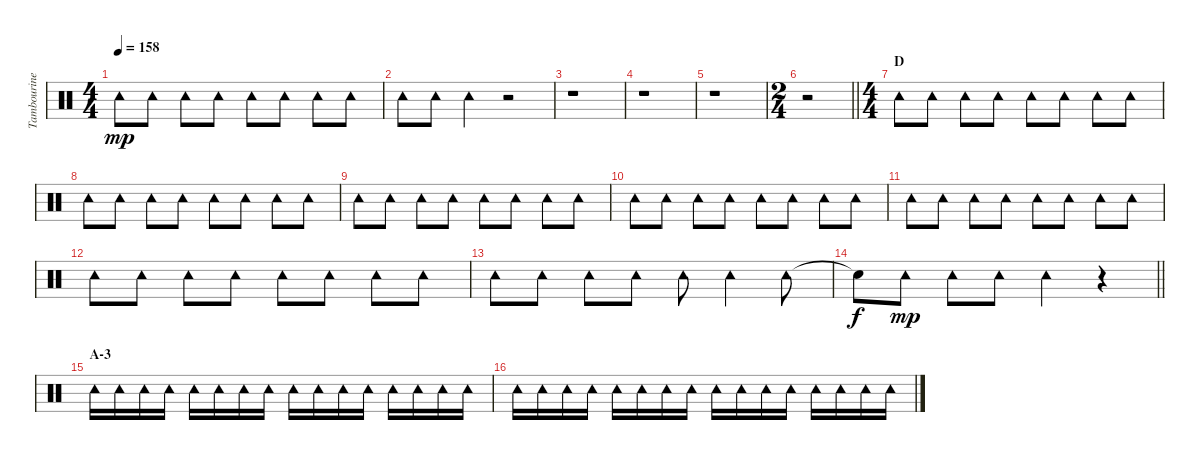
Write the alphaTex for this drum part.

\track ("Tambourine" "Tambourine") {instrument percussion}
\staff {score}
\articulation defaults
\ts (4 4)
\tempo 158
\clef neutral
\ks c "Tambourine (hit)".8{dy mp} "Tambourine (hit)".8 "Tambourine (hit)".8 "Tambourine (hit)".8 "Tambourine (hit)".8 "Tambourine (hit)".8 "Tambourine (hit)".8 "Tambourine (hit)".8
|
"Tambourine (hit)".8 "Tambourine (hit)".8 "Tambourine (hit)".4 r.2 |
r.1 |
r.1 |
r.1 |
\ts (2 4)
\barLineRight lightlight
r.2 |
\ts (4 4)
\section ("" "D")
"Tambourine (hit)".8 "Tambourine (hit)".8 "Tambourine (hit)".8 "Tambourine (hit)".8 "Tambourine (hit)".8 "Tambourine (hit)".8 "Tambourine (hit)".8 "Tambourine (hit)".8 |
"Tambourine (hit)".8 "Tambourine (hit)".8 "Tambourine (hit)".8 "Tambourine (hit)".8 "Tambourine (hit)".8 "Tambourine (hit)".8 "Tambourine (hit)".8 "Tambourine (hit)".8 |
"Tambourine (hit)".8 "Tambourine (hit)".8 "Tambourine (hit)".8 "Tambourine (hit)".8 "Tambourine (hit)".8 "Tambourine (hit)".8 "Tambourine (hit)".8 "Tambourine (hit)".8 |
"Tambourine (hit)".8 "Tambourine (hit)".8 "Tambourine (hit)".8 "Tambourine (hit)".8 "Tambourine (hit)".8 "Tambourine (hit)".8 "Tambourine (hit)".8 "Tambourine (hit)".8 |
"Tambourine (hit)".8 "Tambourine (hit)".8 "Tambourine (hit)".8 "Tambourine (hit)".8 "Tambourine (hit)".8 "Tambourine (hit)".8 "Tambourine (hit)".8 "Tambourine (hit)".8 |
"Tambourine (hit)".8 "Tambourine (hit)".8 "Tambourine (hit)".8 "Tambourine (hit)".8 "Tambourine (hit)".8 "Tambourine (hit)".8 "Tambourine (hit)".8 "Tambourine (hit)".8 |
"Tambourine (hit)".8 "Tambourine (hit)".8 "Tambourine (hit)".8 "Tambourine (hit)".8 "Tambourine (hit)".8 "Tambourine (hit)".4 "Tambourine (hit)".8 |
\barLineRight lightlight "Snare (hit)"{t}.8{dy f} "Tambourine (hit)".8{dy mp} "Tambourine (hit)".8 "Tambourine (hit)".8 "Tambourine (hit)".4
r.4 |
\section ("" "A-3")
"Tambourine (hit)".16 "Tambourine (hit)".16 "Tambourine (hit)".16 "Tambourine (hit)".16 "Tambourine (hit)".16 "Tambourine (hit)".16 "Tambourine (hit)".16 "Tambourine (hit)".16 "Tambourine (hit)".16 "Tambourine (hit)".16 "Tambourine (hit)".16 "Tambourine (hit)".16 "Tambourine (hit)".16 "Tambourine (hit)".16 "Tambourine (hit)".16 "Tambourine (hit)".16 |
"Tambourine (hit)".16 "Tambourine (hit)".16 "Tambourine (hit)".16 "Tambourine (hit)".16 "Tambourine (hit)".16 "Tambourine (hit)".16 "Tambourine (hit)".16 "Tambourine (hit)".16 "Tambourine (hit)".16 "Tambourine (hit)".16 "Tambourine (hit)".16 "Tambourine (hit)".16 "Tambourine (hit)".16 "Tambourine (hit)".16 "Tambourine (hit)".16 "Tambourine (hit)".16
